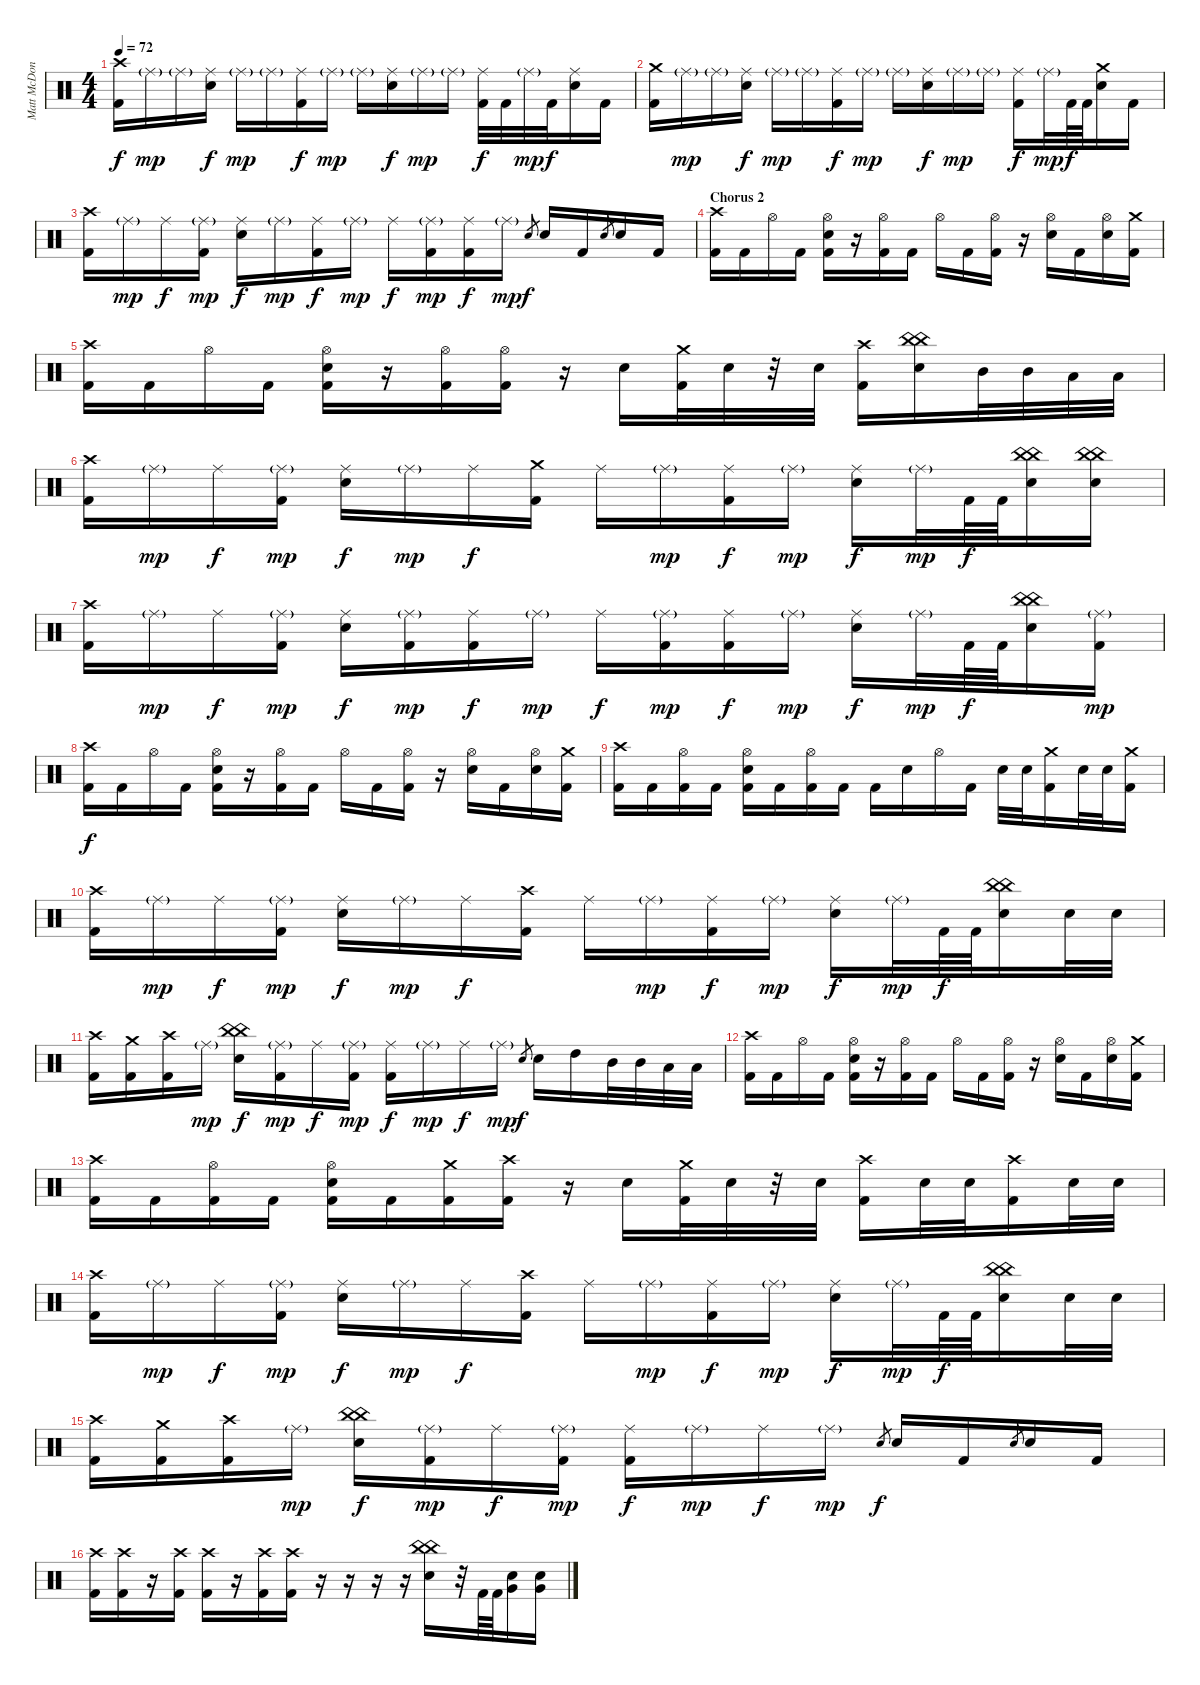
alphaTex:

\track ("Matt McDonough \"Spüg\" (Drums)" "Matt McDon") {instrument percussion}
\staff {score}
\articulation defaults
\ts (4 4)
\tempo 72
\clef neutral
\ks c
("Crash high (hit)" "Kick (hit) 2").16{dy f} "Ride (middle)"{g}.16{dy mp} "Ride (middle)"{g}.16 ("Ride (middle)" "Electric Snare (hit)").16{dy f} "Ride (middle)"{g}.16{dy mp} "Ride (middle)"{g}.16 ("Ride (middle)" "Kick (hit) 2").16{dy f} "Ride (middle)"{g}.16{dy mp} "Ride (middle)"{g}.16 ("Ride (middle)" "Electric Snare (hit)").16{dy f} "Ride (middle)"{g}.16{dy mp} "Ride (middle)"{g}.16 ("Ride (middle)" "Kick (hit) 2").32{dy f} "Kick (hit) 2".32 "Ride (middle)"{g}.32{dy mp} "Kick (hit) 2".32{dy f} ("Ride (middle)" "Electric Snare (hit)").16 "Kick (hit) 2".16 |
("Crash medium (hit)" "Kick (hit) 2").16 "Ride (middle)"{g}.16{dy mp} "Ride (middle)"{g}.16 ("Ride (middle)" "Electric Snare (hit)").16{dy f} "Ride (middle)"{g}.16{dy mp} "Ride (middle)"{g}.16 ("Ride (middle)" "Kick (hit) 2").16{dy f} "Ride (middle)"{g}.16{dy mp} "Ride (middle)"{g}.16 ("Ride (middle)" "Electric Snare (hit)").16{dy f} "Ride (middle)"{g}.16{dy mp} "Ride (middle)"{g}.16 ("Ride (middle)" "Kick (hit) 2").16{dy f} "Ride (middle)"{g}.32{dy mp} "Kick (hit) 2".64{dy f} "Kick (hit) 2".64 ("Crash medium (hit)" "Electric Snare (hit)").16 "Kick (hit) 2".16 |
("Crash high (hit)" "Kick (hit) 2").16 "Ride (middle)"{g}.16{dy mp} "Ride (middle)".16{dy f} ("Ride (middle)"{g} "Kick (hit) 2").16{dy mp} ("Ride (middle)" "Electric Snare (hit)").16{dy f} "Ride (middle)"{g}.16{dy mp} ("Ride (middle)" "Kick (hit) 2").16{dy f} "Ride (middle)"{g}.16{dy mp} "Ride (middle)".16{dy f} ("Ride (middle)"{g} "Kick (hit) 2").16{dy mp} ("Ride (middle)" "Kick (hit) 2").16{dy f} "Ride (middle)"{g}.16{dy mp} "Electric Snare (hit)".8{gr dy f} "Electric Snare (hit)".16 "Kick (hit) 2".16 "Electric Snare (hit)".8{gr} "Electric Snare (hit)".16 "Kick (hit) 2".16 |
\section ("" "Chorus 2")
("Crash high (hit)" "Kick (hit) 2").16 "Kick (hit) 2".16 "Hi-Hat (open)".16 "Kick (hit) 2".16 ("Hi-Hat (open)" "Electric Snare (hit)" "Kick (hit) 2").16 r.16 ("Hi-Hat (open)" "Kick (hit) 2").16 "Kick (hit) 2".16 "Hi-Hat (open)".16 "Kick (hit) 2".16 ("Hi-Hat (open)" "Kick (hit) 2").16 r.16 ("Hi-Hat (open)" "Electric Snare (hit)").16 "Kick (hit) 2".16 ("Hi-Hat (open)" "Electric Snare (hit)").16 ("Crash medium (hit)" "Kick (hit) 2").16 |
("Crash high (hit)" "Kick (hit) 2").16 "Kick (hit) 2".16 "Hi-Hat (open)".16 "Kick (hit) 2".16 ("Hi-Hat (open)" "Electric Snare (hit)" "Kick (hit) 2").16 r.16 ("Hi-Hat (open)" "Kick (hit) 2").16 ("Hi-Hat (open)" "Kick (hit) 2").16 r.16 "Electric Snare (hit)".16 ("Crash medium (hit)" "Kick (hit) 2").32 "Electric Snare (hit)".32 r.32 "Electric Snare (hit)".32 ("Crash high (hit)" "Kick (hit) 2").16 ("China (hit)" "China (hit)" "Electric Snare (hit)").16 "Mid Tom (hit)".32 "Mid Tom (hit)".32 "Low Tom (hit)".32 "Low Tom (hit)".32 |
("Crash high (hit)" "Kick (hit) 2").16 "Ride (middle)"{g}.16{dy mp} "Ride (middle)".16{dy f} ("Ride (middle)"{g} "Kick (hit) 2").16{dy mp} ("Ride (middle)" "Electric Snare (hit)").16{dy f} "Ride (middle)"{g}.16{dy mp} "Ride (middle)".16{dy f} ("Crash medium (hit)" "Kick (hit) 2").16 "Ride (middle)".16 "Ride (middle)"{g}.16{dy mp} ("Ride (middle)" "Kick (hit) 2").16{dy f} "Ride (middle)"{g}.16{dy mp} ("Ride (middle)" "Electric Snare (hit)").16{dy f} "Ride (middle)"{g}.32{dy mp} "Kick (hit) 2".64{dy f} "Kick (hit) 2".64 ("China (hit)" "China (hit)" "Electric Snare (hit)").16 ("China (hit)" "China (hit)" "Electric Snare (hit)").16 |
("Crash high (hit)" "Kick (hit) 2").16 "Ride (middle)"{g}.16{dy mp} "Ride (middle)".16{dy f} ("Ride (middle)"{g} "Kick (hit) 2").16{dy mp} ("Ride (middle)" "Electric Snare (hit)").16{dy f} ("Ride (middle)"{g} "Kick (hit) 2").16{dy mp} ("Ride (middle)" "Kick (hit) 2").16{dy f} "Ride (middle)"{g}.16{dy mp} "Ride (middle)".16{dy f} ("Ride (middle)"{g} "Kick (hit) 2").16{dy mp} ("Ride (middle)" "Kick (hit) 2").16{dy f} "Ride (middle)"{g}.16{dy mp} ("Ride (middle)" "Electric Snare (hit)").16{dy f} "Ride (middle)"{g}.32{dy mp} "Kick (hit) 2".64{dy f} "Kick (hit) 2".64 ("China (hit)" "China (hit)" "Electric Snare (hit)").16 ("Ride (middle)"{g} "Kick (hit) 2").16{dy mp} |
("Crash high (hit)" "Kick (hit) 2").16{dy f} "Kick (hit) 2".16 "Hi-Hat (open)".16 "Kick (hit) 2".16 ("Hi-Hat (open)" "Electric Snare (hit)" "Kick (hit) 2").16 r.16 ("Hi-Hat (open)" "Kick (hit) 2").16 "Kick (hit) 2".16 "Hi-Hat (open)".16 "Kick (hit) 2".16 ("Hi-Hat (open)" "Kick (hit) 2").16 r.16 ("Hi-Hat (open)" "Electric Snare (hit)").16 "Kick (hit) 2".16 ("Hi-Hat (open)" "Electric Snare (hit)").16 ("Crash medium (hit)" "Kick (hit) 2").16 |
("Crash high (hit)" "Kick (hit) 2").16 "Kick (hit) 2".16 ("Hi-Hat (open)" "Kick (hit) 2").16 "Kick (hit) 2".16 ("Hi-Hat (open)" "Electric Snare (hit)" "Kick (hit) 2").16 "Kick (hit) 2".16 ("Hi-Hat (open)" "Kick (hit) 2").16 "Kick (hit) 2".16 "Kick (hit) 2".16 "Electric Snare (hit)".16 "Hi-Hat (open)".16 "Kick (hit) 2".16 "Electric Snare (hit)".32 "Electric Snare (hit)".32 ("Crash medium (hit)" "Kick (hit) 2").16 "Electric Snare (hit)".32 "Electric Snare (hit)".32 ("Crash medium (hit)" "Kick (hit) 2").16 |
("Crash high (hit)" "Kick (hit) 2").16 "Ride (middle)"{g}.16{dy mp} "Ride (middle)".16{dy f} ("Ride (middle)"{g} "Kick (hit) 2").16{dy mp} ("Ride (middle)" "Electric Snare (hit)").16{dy f} "Ride (middle)"{g}.16{dy mp} "Ride (middle)".16{dy f} ("Crash high (hit)" "Kick (hit) 2").16 "Ride (middle)".16 "Ride (middle)"{g}.16{dy mp} ("Ride (middle)" "Kick (hit) 2").16{dy f} "Ride (middle)"{g}.16{dy mp} ("Ride (middle)" "Electric Snare (hit)").16{dy f} "Ride (middle)"{g}.32{dy mp} "Kick (hit) 2".64{dy f} "Kick (hit) 2".64 ("China (hit)" "China (hit)" "Electric Snare (hit)").16 "Electric Snare (hit)".32 "Electric Snare (hit)".32 |
("Crash high (hit)" "Kick (hit) 2").16 ("Crash medium (hit)" "Kick (hit) 2").16 ("Crash high (hit)" "Kick (hit) 2").16 "Ride (middle)"{g}.16{dy mp} ("China (hit)" "China (hit)" "Electric Snare (hit)").16{dy f} ("Ride (middle)"{g} "Kick (hit) 2").16{dy mp} "Ride (middle)".16{dy f} ("Ride (middle)"{g} "Kick (hit) 2").16{dy mp} ("Ride (middle)" "Kick (hit) 2").16{dy f} "Ride (middle)"{g}.16{dy mp} "Ride (middle)".16{dy f} "Ride (middle)"{g}.16{dy mp} "Electric Snare (hit)".8{gr dy f} "Electric Snare (hit)".16 "High Tom (hit)".16 "Mid Tom (hit)".32 "Mid Tom (hit)".32 "Low Tom (hit)".32 "Low Tom (hit)".32 |
("Crash high (hit)" "Kick (hit) 2").16 "Kick (hit) 2".16 "Hi-Hat (open)".16 "Kick (hit) 2".16 ("Hi-Hat (open)" "Electric Snare (hit)" "Kick (hit) 2").16 r.16 ("Hi-Hat (open)" "Kick (hit) 2").16 "Kick (hit) 2".16 "Hi-Hat (open)".16 "Kick (hit) 2".16 ("Hi-Hat (open)" "Kick (hit) 2").16 r.16 ("Hi-Hat (open)" "Electric Snare (hit)").16 "Kick (hit) 2".16 ("Hi-Hat (open)" "Electric Snare (hit)").16 ("Crash medium (hit)" "Kick (hit) 2").16 |
("Crash high (hit)" "Kick (hit) 2").16 "Kick (hit) 2".16 ("Hi-Hat (open)" "Kick (hit) 2").16 "Kick (hit) 2".16 ("Hi-Hat (open)" "Electric Snare (hit)" "Kick (hit) 2").16 "Kick (hit) 2".16 ("Crash medium (hit)" "Kick (hit) 2").16 ("Crash high (hit)" "Kick (hit) 2").16 r.16 "Electric Snare (hit)".16 ("Crash medium (hit)" "Kick (hit) 2").32 "Electric Snare (hit)".32 r.32 "Electric Snare (hit)".32 ("Crash high (hit)" "Kick (hit) 2").16 "Electric Snare (hit)".32 "Electric Snare (hit)".32 ("Crash high (hit)" "Kick (hit) 2").16 "Electric Snare (hit)".32 "Electric Snare (hit)".32 |
("Crash high (hit)" "Kick (hit) 2").16 "Ride (middle)"{g}.16{dy mp} "Ride (middle)".16{dy f} ("Ride (middle)"{g} "Kick (hit) 2").16{dy mp} ("Ride (middle)" "Electric Snare (hit)").16{dy f} "Ride (middle)"{g}.16{dy mp} "Ride (middle)".16{dy f} ("Crash high (hit)" "Kick (hit) 2").16 "Ride (middle)".16 "Ride (middle)"{g}.16{dy mp} ("Ride (middle)" "Kick (hit) 2").16{dy f} "Ride (middle)"{g}.16{dy mp} ("Ride (middle)" "Electric Snare (hit)").16{dy f} "Ride (middle)"{g}.32{dy mp} "Kick (hit) 2".64{dy f} "Kick (hit) 2".64 ("China (hit)" "China (hit)" "Electric Snare (hit)").16 "Electric Snare (hit)".32 "Electric Snare (hit)".32 |
("Crash high (hit)" "Kick (hit) 2").16 ("Crash medium (hit)" "Kick (hit) 2").16 ("Crash high (hit)" "Kick (hit) 2").16 "Ride (middle)"{g}.16{dy mp} ("China (hit)" "China (hit)" "Electric Snare (hit)").16{dy f} ("Ride (middle)"{g} "Kick (hit) 2").16{dy mp} "Ride (middle)".16{dy f} ("Ride (middle)"{g} "Kick (hit) 2").16{dy mp} ("Ride (middle)" "Kick (hit) 2").16{dy f} "Ride (middle)"{g}.16{dy mp} "Ride (middle)".16{dy f} "Ride (middle)"{g}.16{dy mp} "Electric Snare (hit)".8{gr dy f} "Electric Snare (hit)".16 "Kick (hit) 2".16 "Electric Snare (hit)".8{gr} "Electric Snare (hit)".16 "Kick (hit) 2".16 |
("Crash high (hit)" "Kick (hit) 2").16 ("Crash high (hit)" "Kick (hit) 2").16 r.16 ("Crash high (hit)" "Kick (hit) 2").16 ("Crash high (hit)" "Kick (hit) 2").16 r.16 ("Crash high (hit)" "Kick (hit) 2").16 ("Crash high (hit)" "Kick (hit) 2").16 r.16 r.16 r.16 r.16 ("China (hit)" "China (hit)" "Electric Snare (hit)").16 r.32 "Kick (hit) 2".64 "Kick (hit) 2".64 ("Electric Snare (hit)" "Very Low Tom (hit)").16 ("Electric Snare (hit)" "Very Low Tom (hit)").16
